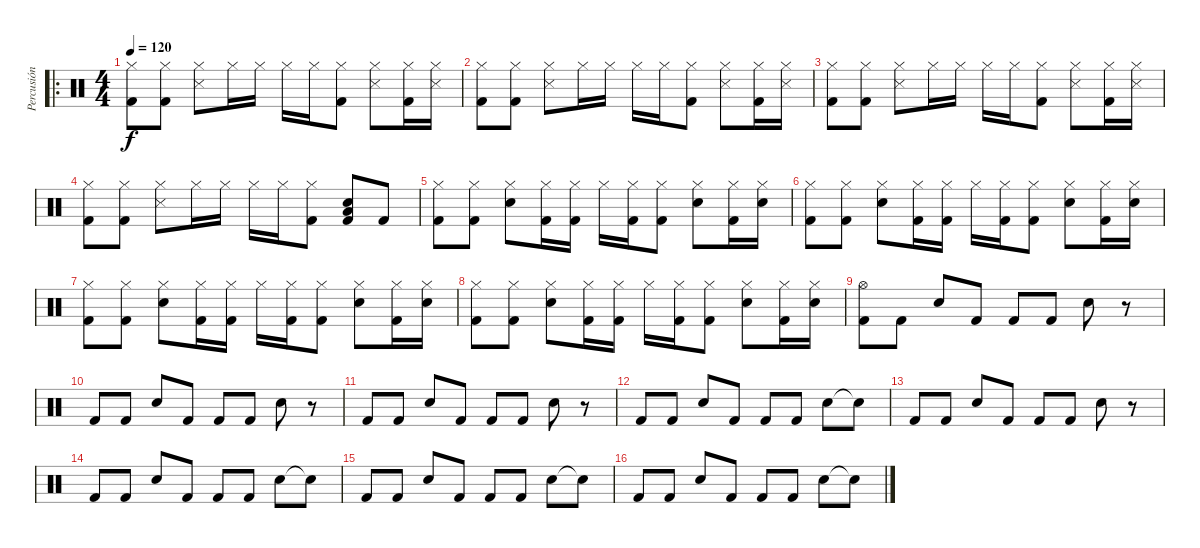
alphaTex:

\track ("Percusión" "Percusión") {instrument percussion}
\staff {score}
\articulation defaults
\ro
\ts (4 4)
\tempo 120
\clef neutral
\ks c
("Hi-Hat (closed)" "Kick (hit) 2").8{dy f} ("Hi-Hat (closed)" "Kick (hit) 2").8 ("Hi-Hat (closed)" "Snare (side stick) 3").8 "Hi-Hat (closed)".16 "Hi-Hat (closed)".16 "Hi-Hat (closed)".16 "Hi-Hat (closed)".16 ("Hi-Hat (closed)" "Kick (hit) 2").8 ("Hi-Hat (closed)" "Snare (side stick) 3").8 ("Hi-Hat (closed)" "Kick (hit) 2").16 ("Hi-Hat (closed)" "Snare (side stick) 3").16 |
("Hi-Hat (closed)" "Kick (hit) 2").8 ("Hi-Hat (closed)" "Kick (hit) 2").8 ("Hi-Hat (closed)" "Snare (side stick) 3").8 "Hi-Hat (closed)".16 "Hi-Hat (closed)".16 "Hi-Hat (closed)".16 "Hi-Hat (closed)".16 ("Hi-Hat (closed)" "Kick (hit) 2").8 ("Hi-Hat (closed)" "Snare (side stick) 3").8 ("Hi-Hat (closed)" "Kick (hit) 2").16 ("Hi-Hat (closed)" "Snare (side stick) 3").16 |
("Hi-Hat (closed)" "Kick (hit) 2").8 ("Hi-Hat (closed)" "Kick (hit) 2").8 ("Hi-Hat (closed)" "Snare (side stick) 3").8 "Hi-Hat (closed)".16 "Hi-Hat (closed)".16 "Hi-Hat (closed)".16 "Hi-Hat (closed)".16 ("Hi-Hat (closed)" "Kick (hit) 2").8 ("Hi-Hat (closed)" "Snare (side stick) 3").8 ("Hi-Hat (closed)" "Kick (hit) 2").16 ("Hi-Hat (closed)" "Snare (side stick) 3").16 |
("Hi-Hat (closed)" "Kick (hit) 2").8 ("Hi-Hat (closed)" "Kick (hit) 2").8 ("Hi-Hat (closed)" "Snare (side stick) 3").8 "Hi-Hat (closed)".16 "Hi-Hat (closed)".16 "Hi-Hat (closed)".16 "Hi-Hat (closed)".16 ("Hi-Hat (closed)" "Kick (hit) 2").8 ("Low Floor Tom (hit)" "Electric Snare (hit)" "Kick (hit) 2").8 "Kick (hit) 2".8 |
("Hi-Hat (closed)" "Kick (hit) 2").8 ("Hi-Hat (closed)" "Kick (hit) 2").8 ("Hi-Hat (closed)" "Electric Snare (hit)").8 ("Hi-Hat (closed)" "Kick (hit) 2").16 ("Hi-Hat (closed)" "Kick (hit) 2").16 "Hi-Hat (closed)".16 ("Hi-Hat (closed)" "Kick (hit) 2").16 ("Hi-Hat (closed)" "Kick (hit) 2").8 ("Hi-Hat (closed)" "Electric Snare (hit)").8 ("Hi-Hat (closed)" "Kick (hit) 2").16 ("Hi-Hat (closed)" "Electric Snare (hit)").16 |
("Hi-Hat (closed)" "Kick (hit) 2").8 ("Hi-Hat (closed)" "Kick (hit) 2").8 ("Hi-Hat (closed)" "Electric Snare (hit)").8 ("Hi-Hat (closed)" "Kick (hit) 2").16 ("Hi-Hat (closed)" "Kick (hit) 2").16 "Hi-Hat (closed)".16 ("Hi-Hat (closed)" "Kick (hit) 2").16 ("Hi-Hat (closed)" "Kick (hit) 2").8 ("Hi-Hat (closed)" "Electric Snare (hit)").8 ("Hi-Hat (closed)" "Kick (hit) 2").16 ("Hi-Hat (closed)" "Electric Snare (hit)").16 |
("Hi-Hat (closed)" "Kick (hit) 2").8 ("Hi-Hat (closed)" "Kick (hit) 2").8 ("Hi-Hat (closed)" "Electric Snare (hit)").8 ("Hi-Hat (closed)" "Kick (hit) 2").16 ("Hi-Hat (closed)" "Kick (hit) 2").16 "Hi-Hat (closed)".16 ("Hi-Hat (closed)" "Kick (hit) 2").16 ("Hi-Hat (closed)" "Kick (hit) 2").8 ("Hi-Hat (closed)" "Electric Snare (hit)").8 ("Hi-Hat (closed)" "Kick (hit) 2").16 ("Hi-Hat (closed)" "Electric Snare (hit)").16 |
("Hi-Hat (closed)" "Kick (hit) 2").8 ("Hi-Hat (closed)" "Kick (hit) 2").8 ("Hi-Hat (closed)" "Electric Snare (hit)").8 ("Hi-Hat (closed)" "Kick (hit) 2").16 ("Hi-Hat (closed)" "Kick (hit) 2").16 "Hi-Hat (closed)".16 ("Hi-Hat (closed)" "Kick (hit) 2").16 ("Hi-Hat (closed)" "Kick (hit) 2").8 ("Hi-Hat (closed)" "Electric Snare (hit)").8 ("Hi-Hat (closed)" "Kick (hit) 2").16 ("Hi-Hat (closed)" "Electric Snare (hit)").16 |
("Hi-Hat (open)" "Kick (hit) 2").8 "Kick (hit) 2".8 "Electric Snare (hit)".8 "Kick (hit) 2".8 "Kick (hit) 2".8 "Kick (hit) 2".8 "Electric Snare (hit)".8 r.8 |
"Kick (hit) 2".8 "Kick (hit) 2".8 "Electric Snare (hit)".8 "Kick (hit) 2".8 "Kick (hit) 2".8 "Kick (hit) 2".8 "Electric Snare (hit)".8 r.8 |
"Kick (hit) 2".8 "Kick (hit) 2".8 "Electric Snare (hit)".8 "Kick (hit) 2".8 "Kick (hit) 2".8 "Kick (hit) 2".8 "Electric Snare (hit)".8 r.8 |
"Kick (hit) 2".8 "Kick (hit) 2".8 "Electric Snare (hit)".8 "Kick (hit) 2".8 "Kick (hit) 2".8 "Kick (hit) 2".8 "Electric Snare (hit)".8 "Snare (hit)"{t}.8 |
"Kick (hit) 2".8 "Kick (hit) 2".8 "Electric Snare (hit)".8 "Kick (hit) 2".8 "Kick (hit) 2".8 "Kick (hit) 2".8 "Electric Snare (hit)".8 r.8 |
"Kick (hit) 2".8 "Kick (hit) 2".8 "Electric Snare (hit)".8 "Kick (hit) 2".8 "Kick (hit) 2".8 "Kick (hit) 2".8 "Electric Snare (hit)".8 "Snare (hit)"{t}.8 |
"Kick (hit) 2".8 "Kick (hit) 2".8 "Electric Snare (hit)".8 "Kick (hit) 2".8 "Kick (hit) 2".8 "Kick (hit) 2".8 "Electric Snare (hit)".8 "Snare (hit)"{t}.8 |
"Kick (hit) 2".8 "Kick (hit) 2".8 "Electric Snare (hit)".8 "Kick (hit) 2".8 "Kick (hit) 2".8 "Kick (hit) 2".8 "Electric Snare (hit)".8 "Snare (hit)"{t}.8
